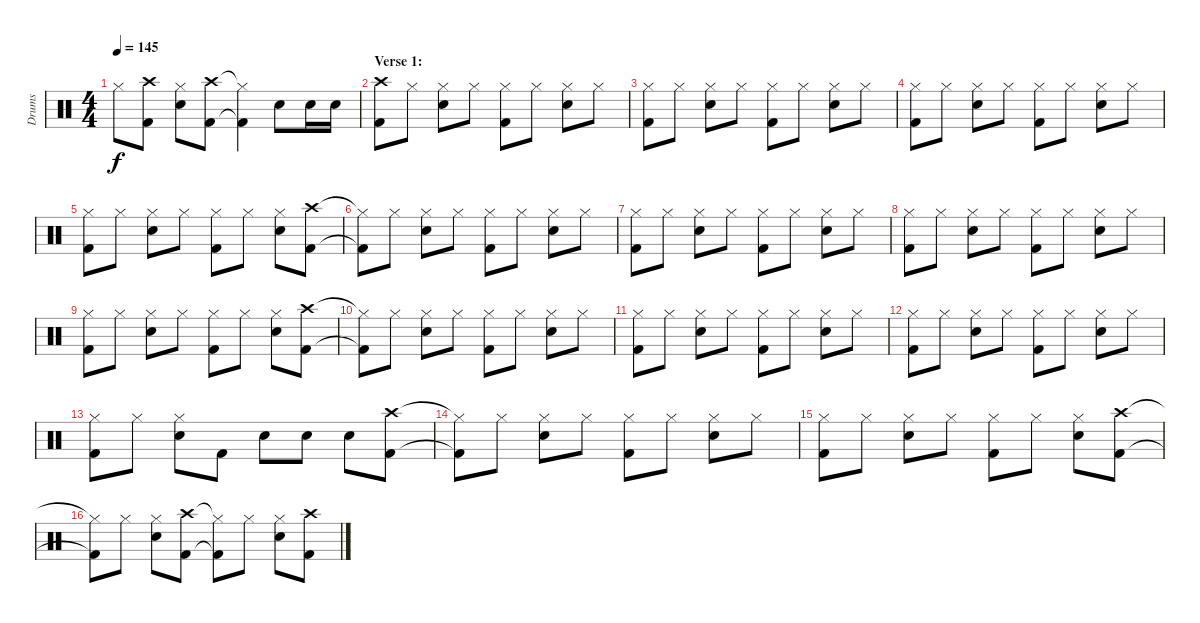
\track ("Drums" "Drums") {instrument percussion}
\staff {score}
\articulation defaults
\ts (4 4)
\tempo 145
\clef neutral
\ks c "Hi-Hat (closed)".8{dy f}
("Crash high (hit)" "Kick (hit) 2").8 ("Hi-Hat (closed)" "Electric Snare (hit)").8 ("Crash high (hit)" "Kick (hit) 2").8 ("Hi-Hat (closed)"{t} "Kick (hit) 2"{t}).4 "Electric Snare (hit)".8 "Electric Snare (hit)".16 "Electric Snare (hit)".16 |
\section ("" "Verse 1:")
("Crash high (hit)" "Kick (hit) 2").8 "Hi-Hat (closed)".8 ("Hi-Hat (closed)" "Electric Snare (hit)").8 "Hi-Hat (closed)".8 ("Hi-Hat (closed)" "Kick (hit) 2").8 "Hi-Hat (closed)".8 ("Hi-Hat (closed)" "Electric Snare (hit)").8 "Hi-Hat (closed)".8 |
("Hi-Hat (closed)" "Kick (hit) 2").8 "Hi-Hat (closed)".8 ("Hi-Hat (closed)" "Electric Snare (hit)").8 "Hi-Hat (closed)".8 ("Hi-Hat (closed)" "Kick (hit) 2").8 "Hi-Hat (closed)".8 ("Hi-Hat (closed)" "Electric Snare (hit)").8 "Hi-Hat (closed)".8 |
("Hi-Hat (closed)" "Kick (hit) 2").8 "Hi-Hat (closed)".8 ("Hi-Hat (closed)" "Electric Snare (hit)").8 "Hi-Hat (closed)".8 ("Hi-Hat (closed)" "Kick (hit) 2").8 "Hi-Hat (closed)".8 ("Hi-Hat (closed)" "Electric Snare (hit)").8 "Hi-Hat (closed)".8 |
("Hi-Hat (closed)" "Kick (hit) 2").8 "Hi-Hat (closed)".8 ("Hi-Hat (closed)" "Electric Snare (hit)").8 "Hi-Hat (closed)".8 ("Hi-Hat (closed)" "Kick (hit) 2").8 "Hi-Hat (closed)".8 ("Hi-Hat (closed)" "Electric Snare (hit)").8 ("Crash high (hit)" "Kick (hit) 2").8 |
("Hi-Hat (closed)"{t} "Kick (hit) 2"{t}).8 "Hi-Hat (closed)".8 ("Hi-Hat (closed)" "Electric Snare (hit)").8 "Hi-Hat (closed)".8 ("Hi-Hat (closed)" "Kick (hit) 2").8 "Hi-Hat (closed)".8 ("Hi-Hat (closed)" "Electric Snare (hit)").8 "Hi-Hat (closed)".8 |
("Hi-Hat (closed)" "Kick (hit) 2").8 "Hi-Hat (closed)".8 ("Hi-Hat (closed)" "Electric Snare (hit)").8 "Hi-Hat (closed)".8 ("Hi-Hat (closed)" "Kick (hit) 2").8 "Hi-Hat (closed)".8 ("Hi-Hat (closed)" "Electric Snare (hit)").8 "Hi-Hat (closed)".8 |
("Hi-Hat (closed)" "Kick (hit) 2").8 "Hi-Hat (closed)".8 ("Hi-Hat (closed)" "Electric Snare (hit)").8 "Hi-Hat (closed)".8 ("Hi-Hat (closed)" "Kick (hit) 2").8 "Hi-Hat (closed)".8 ("Hi-Hat (closed)" "Electric Snare (hit)").8 "Hi-Hat (closed)".8 |
("Hi-Hat (closed)" "Kick (hit) 2").8 "Hi-Hat (closed)".8 ("Hi-Hat (closed)" "Electric Snare (hit)").8 "Hi-Hat (closed)".8 ("Hi-Hat (closed)" "Kick (hit) 2").8 "Hi-Hat (closed)".8 ("Hi-Hat (closed)" "Electric Snare (hit)").8 ("Crash high (hit)" "Kick (hit) 2").8 |
("Hi-Hat (closed)"{t} "Kick (hit) 2"{t}).8 "Hi-Hat (closed)".8 ("Hi-Hat (closed)" "Electric Snare (hit)").8 "Hi-Hat (closed)".8 ("Hi-Hat (closed)" "Kick (hit) 2").8 "Hi-Hat (closed)".8 ("Hi-Hat (closed)" "Electric Snare (hit)").8 "Hi-Hat (closed)".8 |
("Hi-Hat (closed)" "Kick (hit) 2").8 "Hi-Hat (closed)".8 ("Hi-Hat (closed)" "Electric Snare (hit)").8 "Hi-Hat (closed)".8 ("Hi-Hat (closed)" "Kick (hit) 2").8 "Hi-Hat (closed)".8 ("Hi-Hat (closed)" "Electric Snare (hit)").8 "Hi-Hat (closed)".8 |
("Hi-Hat (closed)" "Kick (hit) 2").8 "Hi-Hat (closed)".8 ("Hi-Hat (closed)" "Electric Snare (hit)").8 "Hi-Hat (closed)".8 ("Hi-Hat (closed)" "Kick (hit) 2").8 "Hi-Hat (closed)".8 ("Hi-Hat (closed)" "Electric Snare (hit)").8 "Hi-Hat (closed)".8 |
("Hi-Hat (closed)" "Kick (hit) 2").8 "Hi-Hat (closed)".8 ("Hi-Hat (closed)" "Electric Snare (hit)").8 "Kick (hit) 2".8 "Electric Snare (hit)".8 "Electric Snare (hit)".8 "Electric Snare (hit)".8 ("Crash high (hit)" "Kick (hit) 2").8 |
("Hi-Hat (closed)"{t} "Kick (hit) 2"{t}).8 "Hi-Hat (closed)".8 ("Hi-Hat (closed)" "Electric Snare (hit)").8 "Hi-Hat (closed)".8 ("Hi-Hat (closed)" "Kick (hit) 2").8 "Hi-Hat (closed)".8 ("Hi-Hat (closed)" "Electric Snare (hit)").8 "Hi-Hat (closed)".8 |
("Hi-Hat (closed)" "Kick (hit) 2").8 "Hi-Hat (closed)".8 ("Hi-Hat (closed)" "Electric Snare (hit)").8 "Hi-Hat (closed)".8 ("Hi-Hat (closed)" "Kick (hit) 2").8 "Hi-Hat (closed)".8 ("Hi-Hat (closed)" "Electric Snare (hit)").8 ("Crash high (hit)" "Kick (hit) 2").8 |
("Hi-Hat (closed)"{t} "Kick (hit) 2"{t}).8 "Hi-Hat (closed)".8 ("Hi-Hat (closed)" "Electric Snare (hit)").8 ("Crash high (hit)" "Kick (hit) 2").8 ("Hi-Hat (closed)"{t} "Kick (hit) 2"{t}).8 "Hi-Hat (closed)".8 ("Hi-Hat (closed)" "Electric Snare (hit)").8 ("Crash high (hit)" "Kick (hit) 2").8
